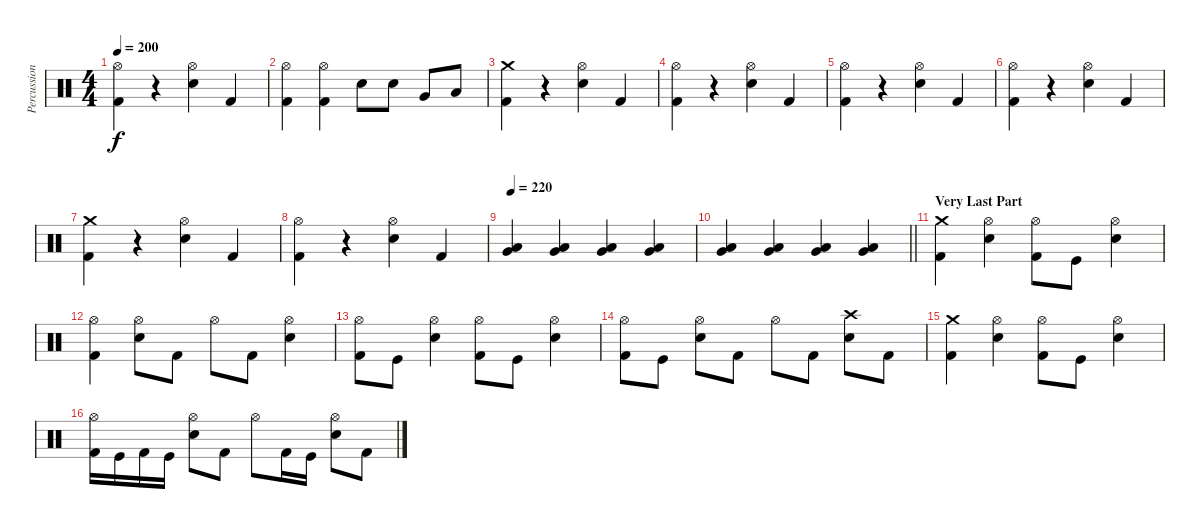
\track ("Percussion" "Percussion") {instrument percussion}
\staff {score}
\articulation defaults
\ts (4 4)
\tempo 200
\clef neutral
\ks c
("Hi-Hat (open)" "Kick (hit) 2").4{dy f} r.4 ("Hi-Hat (open)" "Snare (hit) 2").4 "Kick (hit) 2".4 |
("Hi-Hat (open)" "Kick (hit) 2").4 ("Hi-Hat (open)" "Kick (hit) 2").4 "Snare (hit) 2".8 "Snare (hit) 2".8 "Very Low Tom (hit)".8 "Low Floor Tom (hit)".8 |
("Crash medium (hit)" "Kick (hit) 2").4 r.4 ("Hi-Hat (open)" "Snare (hit) 2").4 "Kick (hit) 2".4 |
("Hi-Hat (open)" "Kick (hit) 2").4 r.4 ("Hi-Hat (open)" "Snare (hit) 2").4 "Kick (hit) 2".4 |
("Hi-Hat (open)" "Kick (hit) 2").4 r.4 ("Hi-Hat (open)" "Snare (hit) 2").4 "Kick (hit) 2".4 |
("Hi-Hat (open)" "Kick (hit) 2").4 r.4 ("Hi-Hat (open)" "Snare (hit) 2").4 "Kick (hit) 2".4 |
("Crash medium (hit)" "Kick (hit) 2").4 r.4 ("Hi-Hat (open)" "Snare (hit) 2").4 "Kick (hit) 2".4 |
("Hi-Hat (open)" "Kick (hit) 2").4 r.4 ("Hi-Hat (open)" "Snare (hit) 2").4 "Kick (hit) 2".4 |
\tempo 220
("Very Low Tom (hit)" "Low Floor Tom (hit)").4 ("Very Low Tom (hit)" "Low Floor Tom (hit)").4 ("Very Low Tom (hit)" "Low Floor Tom (hit)").4 ("Very Low Tom (hit)" "Low Floor Tom (hit)").4 |
\barLineRight lightlight
("Very Low Tom (hit)" "Low Floor Tom (hit)").4 ("Very Low Tom (hit)" "Low Floor Tom (hit)").4 ("Very Low Tom (hit)" "Low Floor Tom (hit)").4 ("Very Low Tom (hit)" "Low Floor Tom (hit)").4 |
\section ("" "Very Last Part")
("Crash medium (hit)" "Kick (hit) 2").4 ("Hi-Hat (open)" "Snare (hit) 2").4 ("Hi-Hat (open)" "Kick (hit) 2").8 "Kick (hit)".8 ("Hi-Hat (open)" "Snare (hit) 2").4 |
("Hi-Hat (open)" "Kick (hit) 2").4 ("Hi-Hat (open)" "Snare (hit) 2").8 "Kick (hit) 2".8 "Hi-Hat (open)".8 "Kick (hit) 2".8 ("Hi-Hat (open)" "Snare (hit) 2").4 |
("Hi-Hat (open)" "Kick (hit) 2").8 "Kick (hit)".8 ("Hi-Hat (open)" "Snare (hit) 2").4 ("Hi-Hat (open)" "Kick (hit) 2").8 "Kick (hit)".8 ("Hi-Hat (open)" "Snare (hit) 2").4 |
("Hi-Hat (open)" "Kick (hit) 2").8 "Kick (hit)".8 ("Hi-Hat (open)" "Snare (hit) 2").8 "Kick (hit) 2".8 "Hi-Hat (open)".8 "Kick (hit) 2".8 ("Crash high (hit)" "Snare (hit) 2").8 "Kick (hit) 2".8 |
("Crash medium (hit)" "Kick (hit) 2").4 ("Hi-Hat (open)" "Snare (hit) 2").4 ("Hi-Hat (open)" "Kick (hit) 2").8 "Kick (hit)".8 ("Hi-Hat (open)" "Snare (hit) 2").4 |
("Hi-Hat (open)" "Kick (hit) 2").16 "Kick (hit)".16 "Kick (hit) 2".16 "Kick (hit)".16 ("Hi-Hat (open)" "Snare (hit) 2").8 "Kick (hit) 2".8 "Hi-Hat (open)".8 "Kick (hit) 2".16 "Kick (hit)".16 ("Hi-Hat (open)" "Snare (hit) 2").8 "Kick (hit) 2".8
